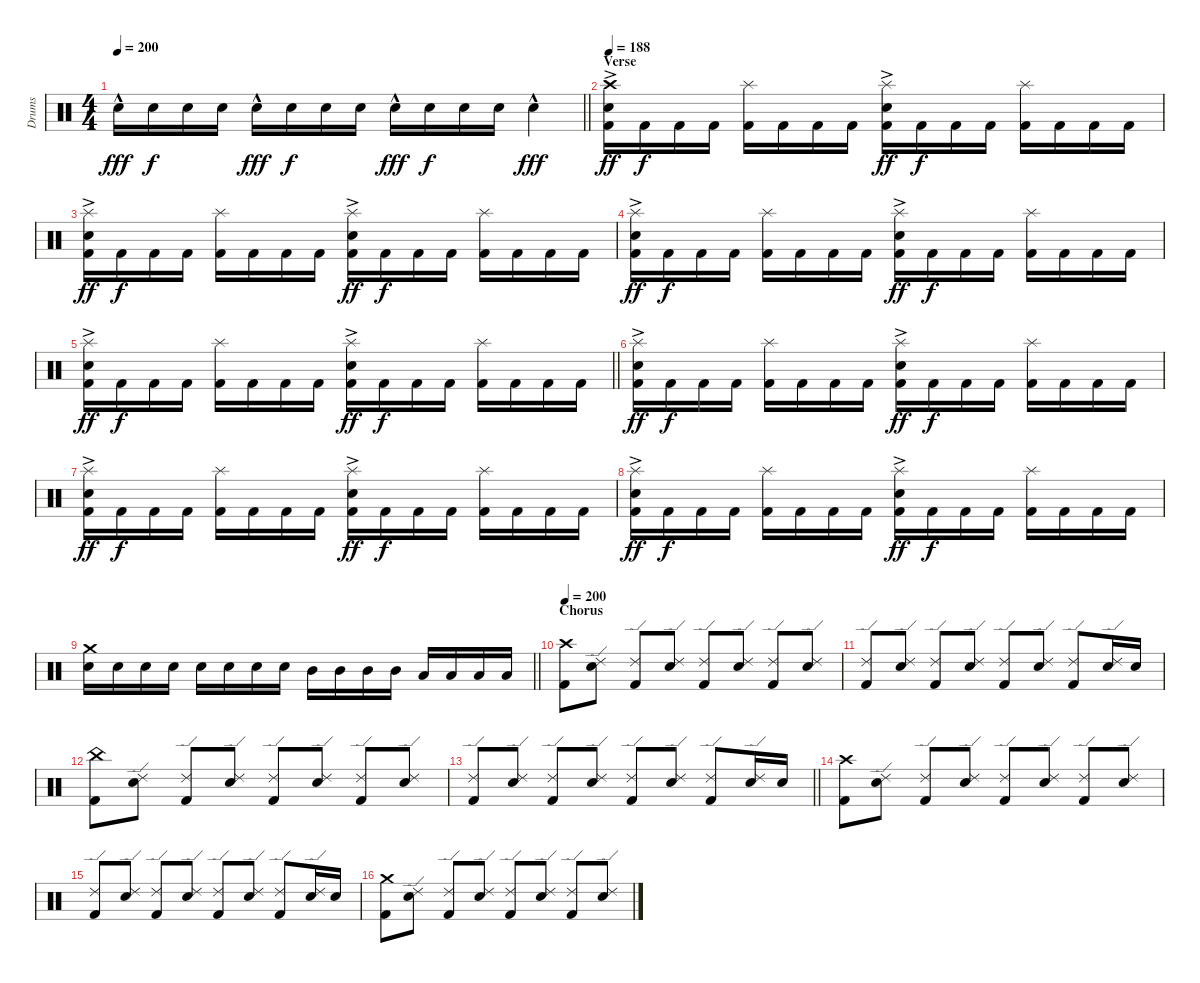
\track ("Drums" "Drums") {instrument percussion}
\staff {score}
\articulation defaults
\ts (4 4)
\tempo 200
\clef neutral
\barLineRight lightlight
\ks c "Snare (hit) 2"{hac}.16{dy fff} "Snare (hit) 2".16{dy f} "Snare (hit) 2".16 "Snare (hit) 2".16 "Snare (hit) 2"{hac}.16{dy fff} "Snare (hit) 2".16{dy f} "Snare (hit) 2".16 "Snare (hit) 2".16 "Snare (hit) 2"{hac}.16{dy fff} "Snare (hit) 2".16{dy f} "Snare (hit) 2".16 "Snare (hit) 2".16 "Snare (hit) 2"{hac}.4{dy fff}
|
\section ("" "Verse")
\tempo 188
("Kick (hit) 2" "Snare (hit) 2"{ac} "Crash high (hit)").16{dy ff volume 14} "Kick (hit) 2".16{dy f} "Kick (hit) 2".16 "Kick (hit) 2".16 ("Kick (hit) 2" "Splash (hit)").16 "Kick (hit) 2".16 "Kick (hit) 2".16 "Kick (hit) 2".16 ("Kick (hit) 2" "Snare (hit) 2"{ac} "Splash (hit)").16{dy ff} "Kick (hit) 2".16{dy f} "Kick (hit) 2".16 "Kick (hit) 2".16 ("Kick (hit) 2" "Splash (hit)").16 "Kick (hit) 2".16 "Kick (hit) 2".16 "Kick (hit) 2".16 |
("Kick (hit) 2" "Snare (hit) 2"{ac} "Splash (hit)").16{dy ff} "Kick (hit) 2".16{dy f} "Kick (hit) 2".16 "Kick (hit) 2".16 ("Kick (hit) 2" "Splash (hit)").16 "Kick (hit) 2".16 "Kick (hit) 2".16 "Kick (hit) 2".16 ("Kick (hit) 2" "Snare (hit) 2"{ac} "Splash (hit)").16{dy ff} "Kick (hit) 2".16{dy f} "Kick (hit) 2".16 "Kick (hit) 2".16 ("Kick (hit) 2" "Splash (hit)").16 "Kick (hit) 2".16 "Kick (hit) 2".16 "Kick (hit) 2".16 |
("Kick (hit) 2" "Snare (hit) 2"{ac} "Splash (hit)").16{dy ff} "Kick (hit) 2".16{dy f} "Kick (hit) 2".16 "Kick (hit) 2".16 ("Kick (hit) 2" "Splash (hit)").16 "Kick (hit) 2".16 "Kick (hit) 2".16 "Kick (hit) 2".16 ("Kick (hit) 2" "Snare (hit) 2"{ac} "Splash (hit)").16{dy ff} "Kick (hit) 2".16{dy f} "Kick (hit) 2".16 "Kick (hit) 2".16 ("Kick (hit) 2" "Splash (hit)").16 "Kick (hit) 2".16 "Kick (hit) 2".16 "Kick (hit) 2".16 |
\barLineRight lightlight
("Kick (hit) 2" "Snare (hit) 2"{ac} "Splash (hit)").16{dy ff} "Kick (hit) 2".16{dy f} "Kick (hit) 2".16 "Kick (hit) 2".16 ("Kick (hit) 2" "Splash (hit)").16 "Kick (hit) 2".16 "Kick (hit) 2".16 "Kick (hit) 2".16 ("Kick (hit) 2" "Snare (hit) 2"{ac} "Splash (hit)").16{dy ff} "Kick (hit) 2".16{dy f} "Kick (hit) 2".16 "Kick (hit) 2".16 ("Kick (hit) 2" "Splash (hit)").16 "Kick (hit) 2".16 "Kick (hit) 2".16 "Kick (hit) 2".16 |
\section ("" "")
("Kick (hit) 2" "Snare (hit) 2"{ac} "Splash (hit)").16{dy ff} "Kick (hit) 2".16{dy f} "Kick (hit) 2".16 "Kick (hit) 2".16 ("Kick (hit) 2" "Splash (hit)").16 "Kick (hit) 2".16 "Kick (hit) 2".16 "Kick (hit) 2".16 ("Kick (hit) 2" "Snare (hit) 2"{ac} "Splash (hit)").16{dy ff} "Kick (hit) 2".16{dy f} "Kick (hit) 2".16 "Kick (hit) 2".16 ("Kick (hit) 2" "Splash (hit)").16 "Kick (hit) 2".16 "Kick (hit) 2".16 "Kick (hit) 2".16 |
("Kick (hit) 2" "Snare (hit) 2"{ac} "Splash (hit)").16{dy ff} "Kick (hit) 2".16{dy f} "Kick (hit) 2".16 "Kick (hit) 2".16 ("Kick (hit) 2" "Splash (hit)").16 "Kick (hit) 2".16 "Kick (hit) 2".16 "Kick (hit) 2".16 ("Kick (hit) 2" "Snare (hit) 2"{ac} "Splash (hit)").16{dy ff} "Kick (hit) 2".16{dy f} "Kick (hit) 2".16 "Kick (hit) 2".16 ("Kick (hit) 2" "Splash (hit)").16 "Kick (hit) 2".16 "Kick (hit) 2".16 "Kick (hit) 2".16 |
("Kick (hit) 2" "Snare (hit) 2"{ac} "Splash (hit)").16{dy ff} "Kick (hit) 2".16{dy f} "Kick (hit) 2".16 "Kick (hit) 2".16 ("Kick (hit) 2" "Splash (hit)").16 "Kick (hit) 2".16 "Kick (hit) 2".16 "Kick (hit) 2".16 ("Kick (hit) 2" "Snare (hit) 2"{ac} "Splash (hit)").16{dy ff} "Kick (hit) 2".16{dy f} "Kick (hit) 2".16 "Kick (hit) 2".16 ("Kick (hit) 2" "Splash (hit)").16 "Kick (hit) 2".16 "Kick (hit) 2".16 "Kick (hit) 2".16 |
\barLineRight lightlight
("Snare (hit) 2" "Crash medium (hit)").16 "Snare (hit) 2".16 "Snare (hit) 2".16 "Snare (hit) 2".16 "Snare (hit) 2".16 "Snare (hit) 2".16 "Snare (hit) 2".16 "Snare (hit) 2".16 "Mid Tom (hit)".16 "Mid Tom (hit)".16 "Mid Tom (hit)".16 "Mid Tom (hit)".16 "Low Tom (hit)".16 "Low Tom (hit)".16 "Low Tom (hit)".16 "Low Tom (hit)".16 |
\section ("" "Chorus")
\tempo 200
("Kick (hit) 2" "Crash high (hit)").8 ("Snare (hit) 2" "Ride (edge) 2").8 ("Kick (hit) 2" "Ride (edge) 2").8 ("Snare (hit) 2" "Ride (edge) 2").8 ("Kick (hit) 2" "Ride (edge) 2").8 ("Snare (hit) 2" "Ride (edge) 2").8 ("Kick (hit) 2" "Ride (edge) 2").8 ("Snare (hit) 2" "Ride (edge) 2").8 |
("Kick (hit) 2" "Ride (edge) 2").8 ("Snare (hit) 2" "Ride (edge) 2").8 ("Kick (hit) 2" "Ride (edge) 2").8 ("Snare (hit) 2" "Ride (edge) 2").8 ("Kick (hit) 2" "Ride (edge) 2").8 ("Snare (hit) 2" "Ride (edge) 2").8 ("Kick (hit) 2" "Ride (edge) 2").8 ("Snare (hit) 2" "Ride (edge) 2").16 "Snare (hit) 2".16 |
("Kick (hit) 2" "China (hit)").8 ("Snare (hit) 2" "Ride (edge) 2").8 ("Kick (hit) 2" "Ride (edge) 2").8 ("Snare (hit) 2" "Ride (edge) 2").8 ("Kick (hit) 2" "Ride (edge) 2").8 ("Snare (hit) 2" "Ride (edge) 2").8 ("Kick (hit) 2" "Ride (edge) 2").8 ("Snare (hit) 2" "Ride (edge) 2").8 |
\barLineRight lightlight
("Kick (hit) 2" "Ride (edge) 2").8 ("Snare (hit) 2" "Ride (edge) 2").8 ("Kick (hit) 2" "Ride (edge) 2").8 ("Snare (hit) 2" "Ride (edge) 2").8 ("Kick (hit) 2" "Ride (edge) 2").8 ("Snare (hit) 2" "Ride (edge) 2").8 ("Kick (hit) 2" "Ride (edge) 2").8 ("Snare (hit) 2" "Ride (edge) 2").16 "Snare (hit) 2".16 |
\section ("" "")
("Kick (hit) 2" "Crash high (hit)").8 ("Snare (hit) 2" "Ride (edge) 2").8 ("Kick (hit) 2" "Ride (edge) 2").8 ("Snare (hit) 2" "Ride (edge) 2").8 ("Kick (hit) 2" "Ride (edge) 2").8 ("Snare (hit) 2" "Ride (edge) 2").8 ("Kick (hit) 2" "Ride (edge) 2").8 ("Snare (hit) 2" "Ride (edge) 2").8 |
("Kick (hit) 2" "Ride (edge) 2").8 ("Snare (hit) 2" "Ride (edge) 2").8 ("Kick (hit) 2" "Ride (edge) 2").8 ("Snare (hit) 2" "Ride (edge) 2").8 ("Kick (hit) 2" "Ride (edge) 2").8 ("Snare (hit) 2" "Ride (edge) 2").8 ("Kick (hit) 2" "Ride (edge) 2").8 ("Snare (hit) 2" "Ride (edge) 2").16 "Snare (hit) 2".16 |
("Kick (hit) 2" "Crash medium (hit)").8 ("Snare (hit) 2" "Ride (edge) 2").8 ("Kick (hit) 2" "Ride (edge) 2").8 ("Snare (hit) 2" "Ride (edge) 2").8 ("Kick (hit) 2" "Ride (edge) 2").8 ("Snare (hit) 2" "Ride (edge) 2").8 ("Kick (hit) 2" "Ride (edge) 2").8 ("Snare (hit) 2" "Ride (edge) 2").8
